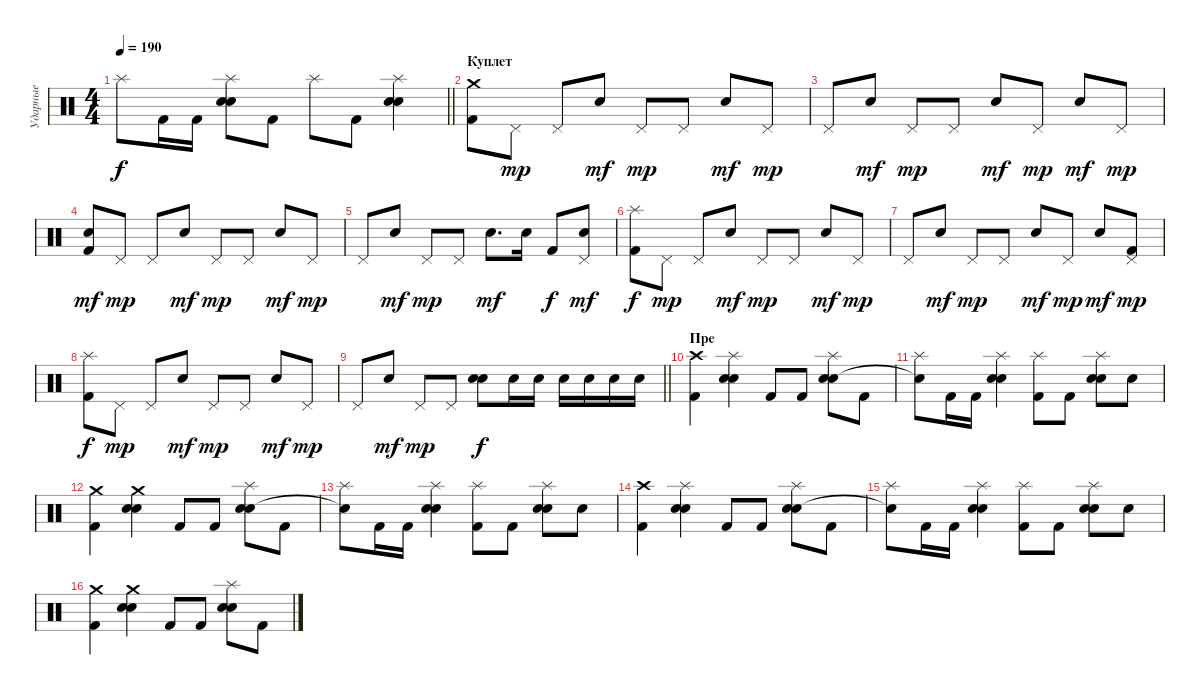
\track ("Ударные" "Ударные") {instrument percussion}
\staff {score}
\articulation defaults
\ts (4 4)
\tempo 190
\clef neutral
\barLineRight lightlight
\ks c "Splash (hit)".8{dy f} "Kick (hit) 2".16 "Kick (hit) 2".16
("Splash (hit)" "Electric Snare (hit)" "Snare (hit) 2").8 "Kick (hit) 2".8 "Splash (hit)".8 "Kick (hit) 2".8 ("Splash (hit)" "Electric Snare (hit)" "Snare (hit) 2").4 |
\section ("" "Куплет")
("Crash medium (hit)" "Kick (hit) 2").8 "Pedal Hi-Hat (hit)".8{dy mp} "Pedal Hi-Hat (hit)".8 "Electric Snare (hit)".8{dy mf} "Pedal Hi-Hat (hit)".8{dy mp} "Pedal Hi-Hat (hit)".8 "Electric Snare (hit)".8{dy mf} "Pedal Hi-Hat (hit)".8{dy mp} |
"Pedal Hi-Hat (hit)".8 "Electric Snare (hit)".8{dy mf} "Pedal Hi-Hat (hit)".8{dy mp} "Pedal Hi-Hat (hit)".8 "Electric Snare (hit)".8{dy mf} "Pedal Hi-Hat (hit)".8{dy mp} "Electric Snare (hit)".8{dy mf} "Pedal Hi-Hat (hit)".8{dy mp} |
("Electric Snare (hit)" "Kick (hit) 2").8{dy mf} "Pedal Hi-Hat (hit)".8{dy mp} "Pedal Hi-Hat (hit)".8 "Electric Snare (hit)".8{dy mf} "Pedal Hi-Hat (hit)".8{dy mp} "Pedal Hi-Hat (hit)".8 "Electric Snare (hit)".8{dy mf} "Pedal Hi-Hat (hit)".8{dy mp} |
"Pedal Hi-Hat (hit)".8 "Electric Snare (hit)".8{dy mf} "Pedal Hi-Hat (hit)".8{dy mp} "Pedal Hi-Hat (hit)".8 "Electric Snare (hit)".8{d dy mf} "Electric Snare (hit)".16 "Kick (hit) 2".8{dy f} ("Pedal Hi-Hat (hit)" "Electric Snare (hit)").8{dy mf} |
("Splash (hit)" "Kick (hit) 2").8{dy f} "Pedal Hi-Hat (hit)".8{dy mp} "Pedal Hi-Hat (hit)".8 "Electric Snare (hit)".8{dy mf} "Pedal Hi-Hat (hit)".8{dy mp} "Pedal Hi-Hat (hit)".8 "Electric Snare (hit)".8{dy mf} "Pedal Hi-Hat (hit)".8{dy mp} |
"Pedal Hi-Hat (hit)".8 "Electric Snare (hit)".8{dy mf} "Pedal Hi-Hat (hit)".8{dy mp} "Pedal Hi-Hat (hit)".8 "Electric Snare (hit)".8{dy mf} "Pedal Hi-Hat (hit)".8{dy mp} "Electric Snare (hit)".8{dy mf} ("Pedal Hi-Hat (hit)" "Kick (hit) 2").8{dy mp} |
("Splash (hit)" "Kick (hit) 2").8{dy f} "Pedal Hi-Hat (hit)".8{dy mp} "Pedal Hi-Hat (hit)".8 "Electric Snare (hit)".8{dy mf} "Pedal Hi-Hat (hit)".8{dy mp} "Pedal Hi-Hat (hit)".8 "Electric Snare (hit)".8{dy mf} "Pedal Hi-Hat (hit)".8{dy mp} |
\barLineRight lightlight "Pedal Hi-Hat (hit)".8 "Electric Snare (hit)".8{dy mf} "Pedal Hi-Hat (hit)".8{dy mp} "Pedal Hi-Hat (hit)".8
("Electric Snare (hit)" "Snare (hit) 2").8{dy f} "Electric Snare (hit)".16 "Electric Snare (hit)".16 "Electric Snare (hit)".16 "Electric Snare (hit)".16 "Electric Snare (hit)".16 "Electric Snare (hit)".16 |
\section ("" "Пре")
("Crash high (hit)" "Kick (hit) 2").4 ("Splash (hit)" "Electric Snare (hit)" "Snare (hit) 2").4 "Kick (hit) 2".8 "Kick (hit) 2".8 ("Splash (hit)" "Electric Snare (hit)" "Snare (hit) 2").8 "Kick (hit) 2".8 |
("Splash (hit)" "Snare (hit)"{t}).8 "Kick (hit) 2".16 "Kick (hit) 2".16 ("Splash (hit)" "Electric Snare (hit)" "Snare (hit) 2").4 ("Splash (hit)" "Kick (hit) 2").8 "Kick (hit) 2".8 ("Splash (hit)" "Electric Snare (hit)" "Snare (hit) 2").8 "Electric Snare (hit)".8 |
("Crash medium (hit)" "Kick (hit) 2").4 ("Crash medium (hit)" "Electric Snare (hit)" "Snare (hit) 2").4 "Kick (hit) 2".8 "Kick (hit) 2".8 ("Splash (hit)" "Electric Snare (hit)" "Snare (hit) 2").8 "Kick (hit) 2".8 |
("Splash (hit)" "Snare (hit)"{t}).8 "Kick (hit) 2".16 "Kick (hit) 2".16 ("Splash (hit)" "Electric Snare (hit)" "Snare (hit) 2").4 ("Splash (hit)" "Kick (hit) 2").8 "Kick (hit) 2".8 ("Splash (hit)" "Electric Snare (hit)" "Snare (hit) 2").8 "Electric Snare (hit)".8 |
("Crash high (hit)" "Kick (hit) 2").4 ("Splash (hit)" "Electric Snare (hit)" "Snare (hit) 2").4 "Kick (hit) 2".8 "Kick (hit) 2".8 ("Splash (hit)" "Electric Snare (hit)" "Snare (hit) 2").8 "Kick (hit) 2".8 |
("Splash (hit)" "Snare (hit)"{t}).8 "Kick (hit) 2".16 "Kick (hit) 2".16 ("Splash (hit)" "Electric Snare (hit)" "Snare (hit) 2").4 ("Splash (hit)" "Kick (hit) 2").8 "Kick (hit) 2".8 ("Splash (hit)" "Electric Snare (hit)" "Snare (hit) 2").8 "Electric Snare (hit)".8 |
("Crash medium (hit)" "Kick (hit) 2").4 ("Crash medium (hit)" "Electric Snare (hit)" "Snare (hit) 2").4 "Kick (hit) 2".8 "Kick (hit) 2".8 ("Splash (hit)" "Electric Snare (hit)" "Snare (hit) 2").8 "Kick (hit) 2".8
